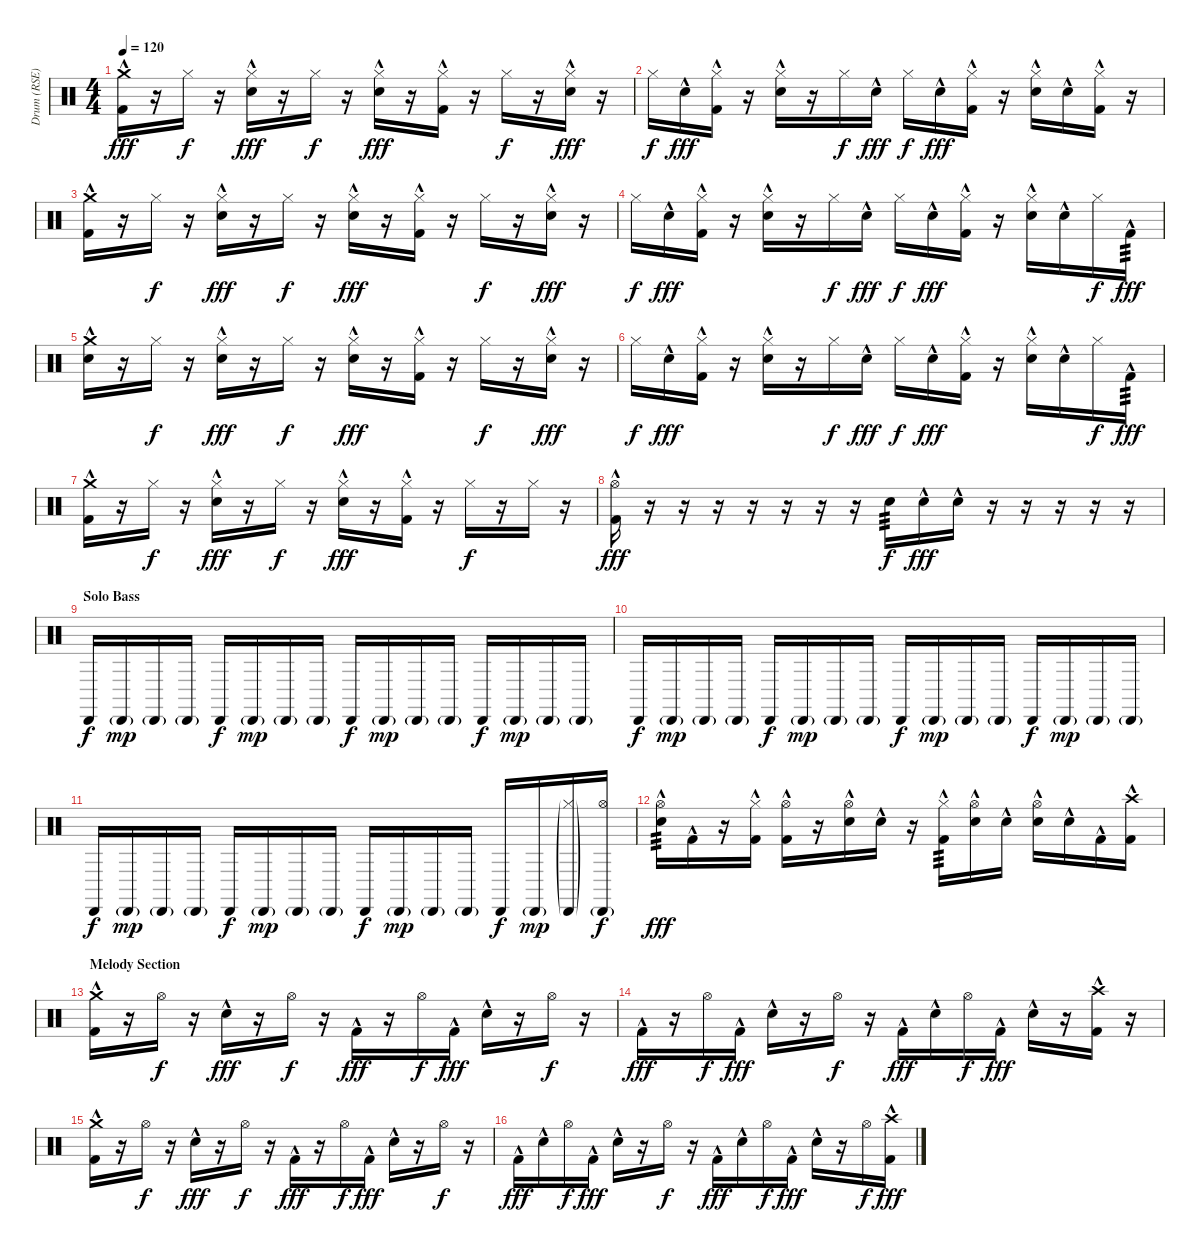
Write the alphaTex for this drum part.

\track ("Drum (RSE)" "Drum (RSE)") {instrument percussion}
\staff {score}
\articulation defaults
\ts (4 4)
\tempo 120
\clef neutral
\ks c
("Crash medium (hit)" "Kick (hit) 2"{hac}).16{dy fff} r.16 "Hi-Hat (closed)".16{dy f} r.16 ("Hi-Hat (closed)" "Snare (hit) 2"{hac}).16{dy fff} r.16 "Hi-Hat (closed)".16{dy f} r.16 ("Hi-Hat (closed)" "Snare (hit) 2"{hac}).16{dy fff} r.16 ("Hi-Hat (closed)" "Kick (hit) 2"{hac}).16 r.16 "Hi-Hat (closed)".16{dy f} r.16 ("Hi-Hat (closed)" "Snare (hit) 2"{hac}).16{dy fff} r.16 |
"Hi-Hat (closed)".16{dy f} "Snare (hit) 2"{hac}.16{dy fff} ("Hi-Hat (closed)" "Kick (hit) 2"{hac}).16 r.16 ("Hi-Hat (closed)" "Snare (hit) 2"{hac}).16 r.16 "Hi-Hat (closed)".16{dy f} "Snare (hit) 2"{hac}.16{dy fff} "Hi-Hat (closed)".16{dy f} "Snare (hit) 2"{hac}.16{dy fff} ("Hi-Hat (closed)" "Kick (hit) 2"{hac}).16 r.16 ("Hi-Hat (closed)" "Snare (hit) 2"{hac}).16 "Snare (hit) 2"{hac}.16 ("Hi-Hat (closed)" "Kick (hit) 2"{hac}).16 r.16 |
("Crash medium (hit)" "Kick (hit) 2"{hac}).16 r.16 "Hi-Hat (closed)".16{dy f} r.16 ("Hi-Hat (closed)" "Snare (hit) 2"{hac}).16{dy fff} r.16 "Hi-Hat (closed)".16{dy f} r.16 ("Hi-Hat (closed)" "Snare (hit) 2"{hac}).16{dy fff} r.16 ("Hi-Hat (closed)" "Kick (hit) 2"{hac}).16 r.16 "Hi-Hat (closed)".16{dy f} r.16 ("Hi-Hat (closed)" "Snare (hit) 2"{hac}).16{dy fff} r.16 |
"Hi-Hat (closed)".16{dy f} "Snare (hit) 2"{hac}.16{dy fff} ("Hi-Hat (closed)" "Kick (hit) 2"{hac}).16 r.16 ("Hi-Hat (closed)" "Snare (hit) 2"{hac}).16 r.16 "Hi-Hat (closed)".16{dy f} "Snare (hit) 2"{hac}.16{dy fff} "Hi-Hat (closed)".16{dy f} "Snare (hit) 2"{hac}.16{dy fff} ("Hi-Hat (closed)" "Kick (hit) 2"{hac}).16 r.16 ("Hi-Hat (closed)" "Snare (hit) 2"{hac}).16 "Snare (hit) 2"{hac}.16 "Hi-Hat (closed)".16{dy f} "Kick (hit) 2"{hac}.16{tp 3 dy fff} |
("Crash medium (hit)" "Snare (hit) 2"{hac}).16 r.16 "Hi-Hat (closed)".16{dy f} r.16 ("Hi-Hat (closed)" "Snare (hit) 2"{hac}).16{dy fff} r.16 "Hi-Hat (closed)".16{dy f} r.16 ("Hi-Hat (closed)" "Snare (hit) 2"{hac}).16{dy fff} r.16 ("Hi-Hat (closed)" "Kick (hit) 2"{hac}).16 r.16 "Hi-Hat (closed)".16{dy f} r.16 ("Hi-Hat (closed)" "Snare (hit) 2"{hac}).16{dy fff} r.16 |
"Hi-Hat (closed)".16{dy f} "Snare (hit) 2"{hac}.16{dy fff} ("Hi-Hat (closed)" "Kick (hit) 2"{hac}).16 r.16 ("Hi-Hat (closed)" "Snare (hit) 2"{hac}).16 r.16 "Hi-Hat (closed)".16{dy f} "Snare (hit) 2"{hac}.16{dy fff} "Hi-Hat (closed)".16{dy f} "Snare (hit) 2"{hac}.16{dy fff} ("Hi-Hat (closed)" "Kick (hit) 2"{hac}).16 r.16 ("Hi-Hat (closed)" "Snare (hit) 2"{hac}).16 "Snare (hit) 2"{hac}.16 "Hi-Hat (closed)".16{dy f} "Kick (hit) 2"{hac}.16{tp 3 dy fff} |
("Crash medium (hit)" "Kick (hit) 2"{hac}).16 r.16 "Hi-Hat (closed)".16{dy f} r.16 ("Hi-Hat (closed)" "Snare (hit) 2"{hac}).16{dy fff} r.16 "Hi-Hat (closed)".16{dy f} r.16 ("Hi-Hat (closed)" "Snare (hit) 2"{hac}).16{dy fff} r.16 ("Hi-Hat (closed)" "Kick (hit) 2"{hac}).16 r.16 "Hi-Hat (closed)".16{dy f} r.16 "Hi-Hat (closed)".16 r.16 |
("Hi-Hat (open)" "Kick (hit) 2"{hac}).16{dy fff} r.16 r.16 r.16 r.16 r.16 r.16 r.16 "Snare (hit) 2".16{tp 3 dy f} "Snare (hit) 2"{hac}.16{dy fff} "Snare (hit) 2"{hac}.16 r.16 r.16 r.16 r.16 r.16 |
\section ("" "Solo Bass")
"Cabasa (hit)".16{dy f} "Cabasa (hit)"{g}.16{dy mp} "Cabasa (hit)"{g}.16 "Cabasa (hit)"{g}.16 "Cabasa (hit)".16{dy f} "Cabasa (hit)"{g}.16{dy mp} "Cabasa (hit)"{g}.16 "Cabasa (hit)"{g}.16 "Cabasa (hit)".16{dy f} "Cabasa (hit)"{g}.16{dy mp} "Cabasa (hit)"{g}.16 "Cabasa (hit)"{g}.16 "Cabasa (hit)".16{dy f} "Cabasa (hit)"{g}.16{dy mp} "Cabasa (hit)"{g}.16 "Cabasa (hit)"{g}.16 |
"Cabasa (hit)".16{dy f} "Cabasa (hit)"{g}.16{dy mp} "Cabasa (hit)"{g}.16 "Cabasa (hit)"{g}.16 "Cabasa (hit)".16{dy f} "Cabasa (hit)"{g}.16{dy mp} "Cabasa (hit)"{g}.16 "Cabasa (hit)"{g}.16 "Cabasa (hit)".16{dy f} "Cabasa (hit)"{g}.16{dy mp} "Cabasa (hit)"{g}.16 "Cabasa (hit)"{g}.16 "Cabasa (hit)".16{dy f} "Cabasa (hit)"{g}.16{dy mp} "Cabasa (hit)"{g}.16 "Cabasa (hit)"{g}.16 |
"Cabasa (hit)".16{dy f} "Cabasa (hit)"{g}.16{dy mp} "Cabasa (hit)"{g}.16 "Cabasa (hit)"{g}.16 "Cabasa (hit)".16{dy f} "Cabasa (hit)"{g}.16{dy mp} "Cabasa (hit)"{g}.16 "Cabasa (hit)"{g}.16 "Cabasa (hit)".16{dy f} "Cabasa (hit)"{g}.16{dy mp} "Cabasa (hit)"{g}.16 "Cabasa (hit)"{g}.16 "Cabasa (hit)".16{dy f} "Cabasa (hit)"{g}.16{dy mp} ("Cabasa (hit)"{g} "Hi-Hat (closed)"{g}).16 ("Cabasa (hit)"{g} "Hi-Hat (open)").16{dy f} |
("Hi-Hat (open)" "Snare (hit) 2"{hac}).16{tp 3 dy fff} "Kick (hit) 2"{hac}.16 r.16 ("Hi-Hat (closed)" "Kick (hit) 2"{hac}).16 ("Hi-Hat (open)" "Kick (hit) 2"{hac}).16 r.16 ("Hi-Hat (open)" "Snare (hit) 2"{hac}).16 "Snare (hit) 2"{hac}.16 r.16 ("Hi-Hat (closed)" "Kick (hit) 2"{hac}).16{tp 3} ("Hi-Hat (open)" "Snare (hit) 2"{hac}).16 "Snare (hit) 2"{hac}.16 ("Hi-Hat (open)" "Snare (hit) 2"{hac}).16 "Snare (hit) 2"{hac}.16 "Kick (hit) 2"{hac}.16 ("Crash high (hit)" "Kick (hit) 2"{hac}).16 |
\section ("" "Melody Section")
("Crash medium (hit)" "Kick (hit) 2"{hac}).16 r.16 "Hi-Hat (open)".16{dy f} r.16 "Snare (hit) 2"{hac}.16{dy fff} r.16 "Hi-Hat (open)".16{dy f} r.16 "Kick (hit) 2"{hac}.16{dy fff} r.16 "Hi-Hat (open)".16{dy f} "Kick (hit) 2"{hac}.16{dy fff} "Snare (hit) 2"{hac}.16 r.16 "Hi-Hat (open)".16{dy f} r.16 |
"Kick (hit) 2"{hac}.16{dy fff} r.16 "Hi-Hat (open)".16{dy f} "Kick (hit) 2"{hac}.16{dy fff} "Snare (hit) 2"{hac}.16 r.16 "Hi-Hat (open)".16{dy f} r.16 "Kick (hit) 2"{hac}.16{dy fff} "Snare (hit) 2"{hac}.16 "Hi-Hat (open)".16{dy f} "Kick (hit) 2"{hac}.16{dy fff} "Snare (hit) 2"{hac}.16 r.16 ("Crash high (hit)" "Kick (hit) 2"{hac}).16 r.16 |
("Crash medium (hit)" "Kick (hit) 2"{hac}).16 r.16 "Hi-Hat (open)".16{dy f} r.16 "Snare (hit) 2"{hac}.16{dy fff} r.16 "Hi-Hat (open)".16{dy f} r.16 "Kick (hit) 2"{hac}.16{dy fff} r.16 "Hi-Hat (open)".16{dy f} "Kick (hit) 2"{hac}.16{dy fff} "Snare (hit) 2"{hac}.16 r.16 "Hi-Hat (open)".16{dy f} r.16 |
"Kick (hit) 2"{hac}.16{dy fff} "Snare (hit) 2"{hac}.16 "Hi-Hat (open)".16{dy f} "Kick (hit) 2"{hac}.16{dy fff} "Snare (hit) 2"{hac}.16 r.16 "Hi-Hat (open)".16{dy f} r.16 "Kick (hit) 2"{hac}.16{dy fff} "Snare (hit) 2"{hac}.16 "Hi-Hat (open)".16{dy f} "Kick (hit) 2"{hac}.16{dy fff} "Snare (hit) 2"{hac}.16 r.16 "Hi-Hat (open)".16{dy f} ("Crash high (hit)" "Kick (hit) 2"{hac}).16{dy fff}
